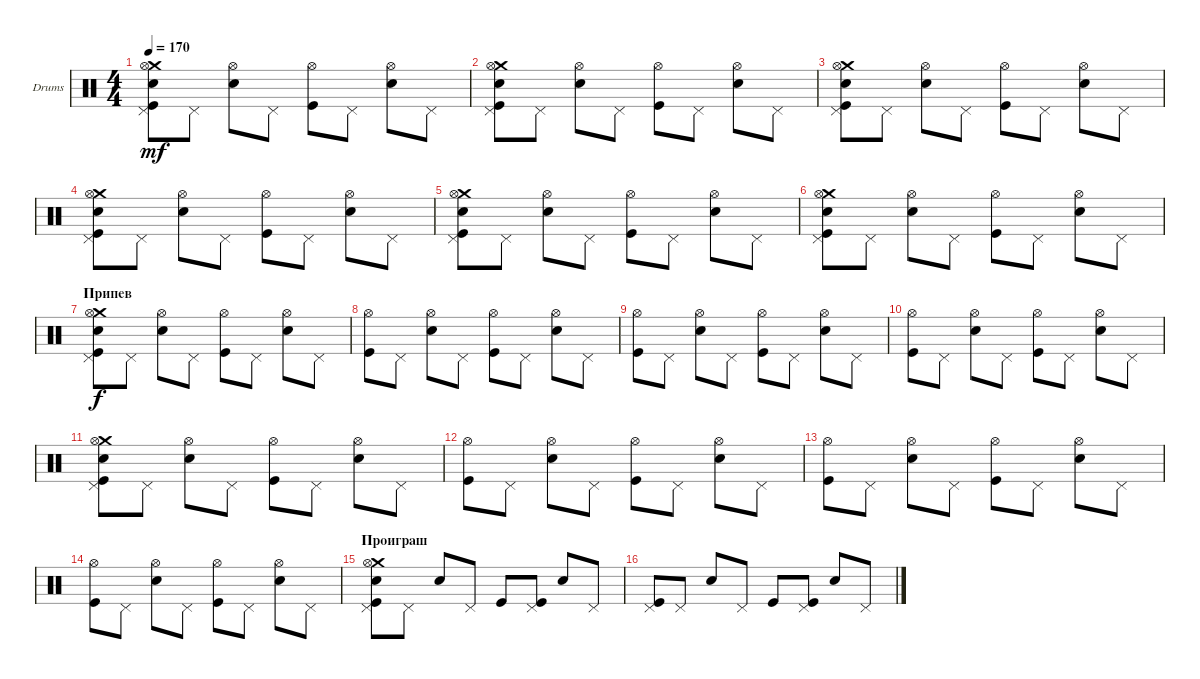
\defaultSystemsLayout 4
\bracketExtendMode groupsimilarinstruments
\firstSystemTrackNameOrientation horizontal
\otherSystemsTrackNameOrientation horizontal
\track ("Е. Кулаков" "Drums") {instrument percussion}
\staff {score}
\articulation defaults
\ts (4 4)
\tempo 170
\clef neutral
\ks c
("Kick (hit)" "Snare (hit) 2" "Crash medium (hit)" "Pedal Hi-Hat (hit)" "Hi-Hat (open)").8{dy mf} "Pedal Hi-Hat (hit)".8 ("Snare (hit) 2" "Hi-Hat (open)").8 "Pedal Hi-Hat (hit)".8 ("Kick (hit)" "Hi-Hat (open)").8 "Pedal Hi-Hat (hit)".8 ("Snare (hit) 2" "Hi-Hat (open)").8 "Pedal Hi-Hat (hit)".8 |
("Kick (hit)" "Snare (hit) 2" "Crash medium (hit)" "Pedal Hi-Hat (hit)" "Hi-Hat (open)").8 "Pedal Hi-Hat (hit)".8 ("Snare (hit) 2" "Hi-Hat (open)").8 "Pedal Hi-Hat (hit)".8 ("Kick (hit)" "Hi-Hat (open)").8 "Pedal Hi-Hat (hit)".8 ("Snare (hit) 2" "Hi-Hat (open)").8 "Pedal Hi-Hat (hit)".8 |
("Kick (hit)" "Snare (hit) 2" "Crash medium (hit)" "Pedal Hi-Hat (hit)" "Hi-Hat (open)").8 "Pedal Hi-Hat (hit)".8 ("Snare (hit) 2" "Hi-Hat (open)").8 "Pedal Hi-Hat (hit)".8 ("Kick (hit)" "Hi-Hat (open)").8 "Pedal Hi-Hat (hit)".8 ("Snare (hit) 2" "Hi-Hat (open)").8 "Pedal Hi-Hat (hit)".8 |
("Kick (hit)" "Snare (hit) 2" "Crash medium (hit)" "Pedal Hi-Hat (hit)" "Hi-Hat (open)").8 "Pedal Hi-Hat (hit)".8 ("Snare (hit) 2" "Hi-Hat (open)").8 "Pedal Hi-Hat (hit)".8 ("Kick (hit)" "Hi-Hat (open)").8 "Pedal Hi-Hat (hit)".8 ("Snare (hit) 2" "Hi-Hat (open)").8 "Pedal Hi-Hat (hit)".8 |
("Kick (hit)" "Snare (hit) 2" "Crash medium (hit)" "Pedal Hi-Hat (hit)" "Hi-Hat (open)").8 "Pedal Hi-Hat (hit)".8 ("Snare (hit) 2" "Hi-Hat (open)").8 "Pedal Hi-Hat (hit)".8 ("Kick (hit)" "Hi-Hat (open)").8 "Pedal Hi-Hat (hit)".8 ("Snare (hit) 2" "Hi-Hat (open)").8 "Pedal Hi-Hat (hit)".8 |
("Kick (hit)" "Snare (hit) 2" "Crash medium (hit)" "Pedal Hi-Hat (hit)" "Hi-Hat (open)").8 "Pedal Hi-Hat (hit)".8 ("Snare (hit) 2" "Hi-Hat (open)").8 "Pedal Hi-Hat (hit)".8 ("Kick (hit)" "Hi-Hat (open)").8 "Pedal Hi-Hat (hit)".8 ("Snare (hit) 2" "Hi-Hat (open)").8 "Pedal Hi-Hat (hit)".8 |
\section ("" "Припев")
("Kick (hit)" "Snare (hit) 2" "Crash medium (hit)" "Pedal Hi-Hat (hit)" "Hi-Hat (open)").8{dy f} "Pedal Hi-Hat (hit)".8 ("Snare (hit) 2" "Hi-Hat (open)").8 "Pedal Hi-Hat (hit)".8 ("Kick (hit)" "Hi-Hat (open)").8 "Pedal Hi-Hat (hit)".8 ("Snare (hit) 2" "Hi-Hat (open)").8 "Pedal Hi-Hat (hit)".8 |
("Kick (hit)" "Hi-Hat (open)").8 "Pedal Hi-Hat (hit)".8 ("Snare (hit) 2" "Hi-Hat (open)").8 "Pedal Hi-Hat (hit)".8 ("Kick (hit)" "Hi-Hat (open)").8 "Pedal Hi-Hat (hit)".8 ("Snare (hit) 2" "Hi-Hat (open)").8 "Pedal Hi-Hat (hit)".8 |
("Kick (hit)" "Hi-Hat (open)").8 "Pedal Hi-Hat (hit)".8 ("Snare (hit) 2" "Hi-Hat (open)").8 "Pedal Hi-Hat (hit)".8 ("Kick (hit)" "Hi-Hat (open)").8 "Pedal Hi-Hat (hit)".8 ("Snare (hit) 2" "Hi-Hat (open)").8 "Pedal Hi-Hat (hit)".8 |
("Kick (hit)" "Hi-Hat (open)").8 "Pedal Hi-Hat (hit)".8 ("Snare (hit) 2" "Hi-Hat (open)").8 "Pedal Hi-Hat (hit)".8 ("Kick (hit)" "Hi-Hat (open)").8 "Pedal Hi-Hat (hit)".8 ("Snare (hit) 2" "Hi-Hat (open)").8 "Pedal Hi-Hat (hit)".8 |
("Kick (hit)" "Snare (hit) 2" "Crash medium (hit)" "Pedal Hi-Hat (hit)" "Hi-Hat (open)").8 "Pedal Hi-Hat (hit)".8 ("Snare (hit) 2" "Hi-Hat (open)").8 "Pedal Hi-Hat (hit)".8 ("Kick (hit)" "Hi-Hat (open)").8 "Pedal Hi-Hat (hit)".8 ("Snare (hit) 2" "Hi-Hat (open)").8 "Pedal Hi-Hat (hit)".8 |
("Kick (hit)" "Hi-Hat (open)").8 "Pedal Hi-Hat (hit)".8 ("Snare (hit) 2" "Hi-Hat (open)").8 "Pedal Hi-Hat (hit)".8 ("Kick (hit)" "Hi-Hat (open)").8 "Pedal Hi-Hat (hit)".8 ("Snare (hit) 2" "Hi-Hat (open)").8 "Pedal Hi-Hat (hit)".8 |
("Kick (hit)" "Hi-Hat (open)").8 "Pedal Hi-Hat (hit)".8 ("Snare (hit) 2" "Hi-Hat (open)").8 "Pedal Hi-Hat (hit)".8 ("Kick (hit)" "Hi-Hat (open)").8 "Pedal Hi-Hat (hit)".8 ("Snare (hit) 2" "Hi-Hat (open)").8 "Pedal Hi-Hat (hit)".8 |
("Kick (hit)" "Hi-Hat (open)").8 "Pedal Hi-Hat (hit)".8 ("Snare (hit) 2" "Hi-Hat (open)").8 "Pedal Hi-Hat (hit)".8 ("Kick (hit)" "Hi-Hat (open)").8 "Pedal Hi-Hat (hit)".8 ("Snare (hit) 2" "Hi-Hat (open)").8 "Pedal Hi-Hat (hit)".8 |
\section ("" "Проиграш")
("Kick (hit)" "Snare (hit) 2" "Crash medium (hit)" "Pedal Hi-Hat (hit)" "Hi-Hat (open)").8 "Pedal Hi-Hat (hit)".8 "Snare (hit) 2".8 "Pedal Hi-Hat (hit)".8 "Kick (hit)".8 ("Kick (hit)" "Pedal Hi-Hat (hit)").8 "Snare (hit) 2".8 "Pedal Hi-Hat (hit)".8 |
("Kick (hit)" "Pedal Hi-Hat (hit)").8 "Pedal Hi-Hat (hit)".8 "Snare (hit) 2".8 "Pedal Hi-Hat (hit)".8 "Kick (hit)".8 ("Kick (hit)" "Pedal Hi-Hat (hit)").8 "Snare (hit) 2".8 "Pedal Hi-Hat (hit)".8
